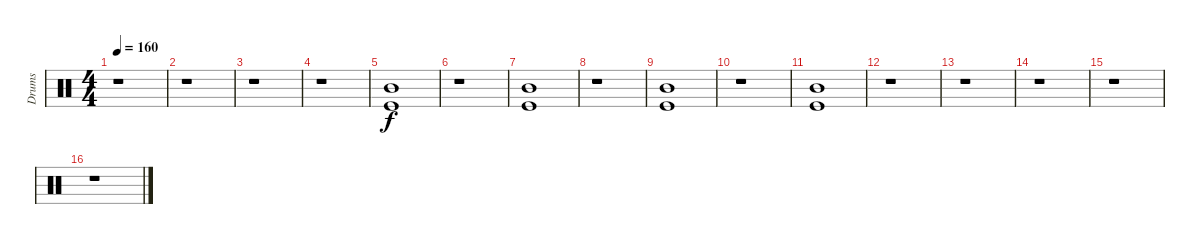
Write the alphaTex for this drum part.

\track ("Drums" "Drums") {instrument percussion}
\staff {score}
\articulation defaults
\ts (4 4)
\tempo 160
\clef neutral
\ks c
r.1{dy f} |
r.1 |
r.1 |
r.1 |
("Mid Tom (hit)" "Kick (hit)").1 |
r.1 |
("Mid Tom (hit)" "Kick (hit)").1 |
r.1 |
("Mid Tom (hit)" "Kick (hit)").1 |
r.1 |
("Mid Tom (hit)" "Kick (hit)").1 |
r.1 |
r.1 |
r.1 |
r.1 |
r.1
